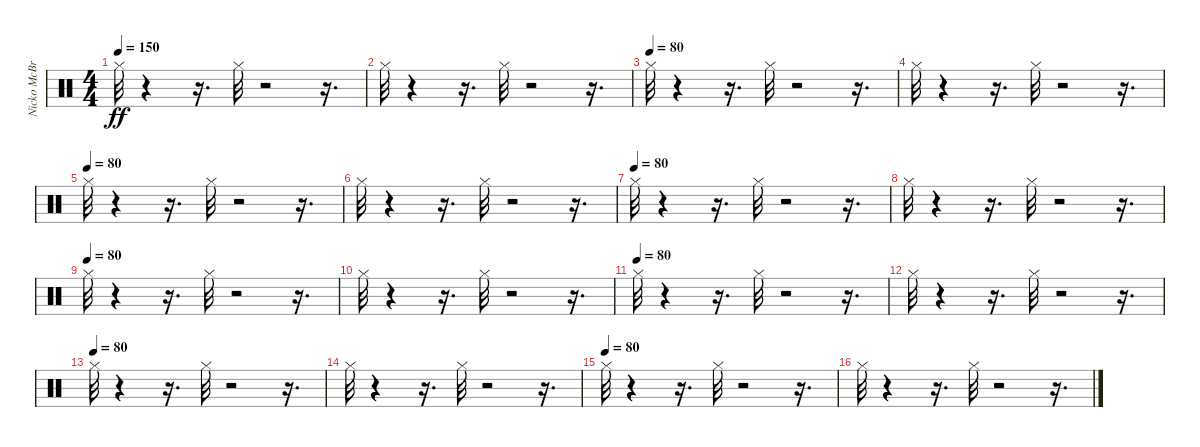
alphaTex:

\track ("Nicko McBrain" "Nicko McBr") {instrument percussion}
\staff {score}
\articulation defaults
\ts (4 4)
\tempo 150
\tempo 80
\tempo 150
\clef neutral
\ks c "Hi-Hat (closed)".32{dy ff}
r.4 r.16{d} "Hi-Hat (closed)".32 r.2 r.16{d} |
"Hi-Hat (closed)".32 r.4 r.16{d} "Hi-Hat (closed)".32 r.2 r.16{d} |
\tempo (80)
"Hi-Hat (closed)".32 r.4 r.16{d} "Hi-Hat (closed)".32 r.2 r.16{d} |
"Hi-Hat (closed)".32 r.4 r.16{d} "Hi-Hat (closed)".32 r.2 r.16{d} |
\tempo (80)
"Hi-Hat (closed)".32 r.4 r.16{d} "Hi-Hat (closed)".32 r.2 r.16{d} |
"Hi-Hat (closed)".32 r.4 r.16{d} "Hi-Hat (closed)".32 r.2 r.16{d} |
\tempo (80)
"Hi-Hat (closed)".32 r.4 r.16{d} "Hi-Hat (closed)".32 r.2 r.16{d} |
"Hi-Hat (closed)".32 r.4 r.16{d} "Hi-Hat (closed)".32 r.2 r.16{d} |
\tempo (80)
"Hi-Hat (closed)".32 r.4 r.16{d} "Hi-Hat (closed)".32 r.2 r.16{d} |
"Hi-Hat (closed)".32 r.4 r.16{d} "Hi-Hat (closed)".32 r.2 r.16{d} |
\tempo (80)
"Hi-Hat (closed)".32 r.4 r.16{d} "Hi-Hat (closed)".32 r.2 r.16{d} |
"Hi-Hat (closed)".32 r.4 r.16{d} "Hi-Hat (closed)".32 r.2 r.16{d} |
\tempo (80)
"Hi-Hat (closed)".32 r.4 r.16{d} "Hi-Hat (closed)".32 r.2 r.16{d} |
"Hi-Hat (closed)".32 r.4 r.16{d} "Hi-Hat (closed)".32 r.2 r.16{d} |
\tempo (80)
"Hi-Hat (closed)".32 r.4 r.16{d} "Hi-Hat (closed)".32 r.2 r.16{d} |
"Hi-Hat (closed)".32 r.4 r.16{d} "Hi-Hat (closed)".32 r.2 r.16{d}
